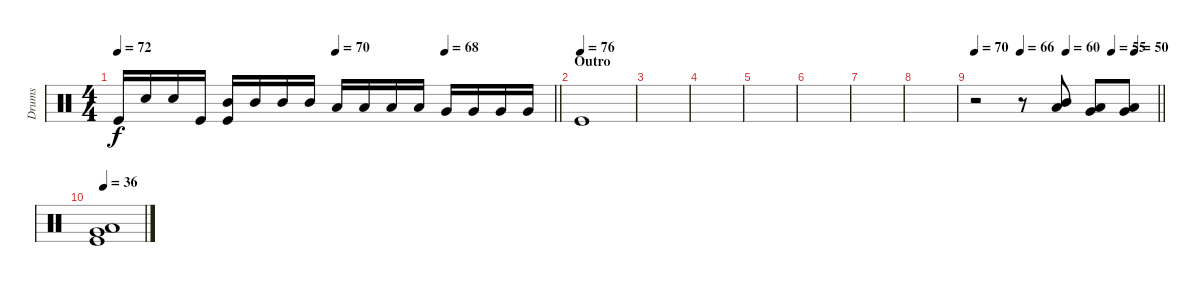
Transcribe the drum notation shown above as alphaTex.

\track ("Drums" "Drums") {instrument percussion}
\staff {score}
\articulation defaults
\ts (4 4)
\tempo 72
\tempo (70 0.5)
\tempo (68 0.75)
\clef neutral
\barLineRight lightlight
\ks c "Kick (hit)".16{dy f} "Snare (hit) 2".16 "Snare (hit) 2".16 "Kick (hit)".16
("Kick (hit)" "Mid Tom (hit)").16 "Mid Tom (hit)".16 "Mid Tom (hit)".16 "Mid Tom (hit)".16 "Low Tom (hit)".16 "Low Tom (hit)".16 "Low Tom (hit)".16 "Low Tom (hit)".16 "Very Low Tom (hit)".16 "Very Low Tom (hit)".16 "Very Low Tom (hit)".16 "Very Low Tom (hit)".16 |
\section ("" "Outro")
\tempo (76)
"Kick (hit)".1 |
|
|
|
|
|
|
\tempo 70
\tempo (66 0.25)
\tempo (60 0.5)
\tempo (55 0.75)
\tempo (50 0.875)
\barLineRight lightlight
r.2 r.8 ("Mid Tom (hit)" "Low Tom (hit)").8 ("Low Tom (hit)" "Very Low Tom (hit)").8 ("Low Floor Tom (hit)" "Very Low Tom (hit)").8 |
\tempo 36
("Low Floor Tom (hit)" "Kick (hit)" "Very Low Tom (hit)").1
